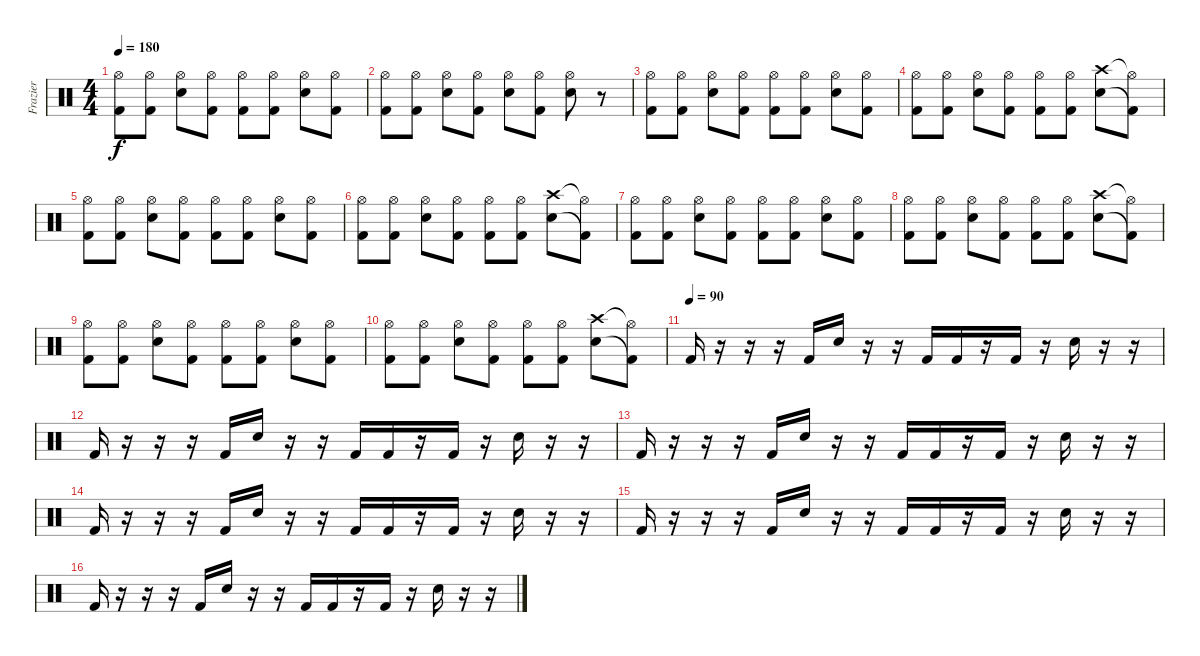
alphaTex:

\track ("Frazier" "Frazier") {instrument percussion}
\staff {score}
\articulation defaults
\ts (4 4)
\tempo 180
\clef neutral
\ks c
("Hi-Hat (open)" "Kick (hit) 2").8{dy f} ("Hi-Hat (open)" "Kick (hit) 2").8 ("Hi-Hat (open)" "Electric Snare (hit)").8 ("Hi-Hat (open)" "Kick (hit) 2").8 ("Hi-Hat (open)" "Kick (hit) 2").8 ("Hi-Hat (open)" "Kick (hit) 2").8 ("Hi-Hat (open)" "Electric Snare (hit)").8 ("Hi-Hat (open)" "Kick (hit) 2").8 |
("Hi-Hat (open)" "Kick (hit) 2").8 ("Hi-Hat (open)" "Kick (hit) 2").8 ("Hi-Hat (open)" "Electric Snare (hit)").8 ("Hi-Hat (open)" "Kick (hit) 2").8 ("Hi-Hat (open)" "Electric Snare (hit)").8 ("Hi-Hat (open)" "Kick (hit) 2").8 ("Hi-Hat (open)" "Electric Snare (hit)").8 r.8 |
("Hi-Hat (open)" "Kick (hit) 2").8 ("Hi-Hat (open)" "Kick (hit) 2").8 ("Hi-Hat (open)" "Electric Snare (hit)").8 ("Hi-Hat (open)" "Kick (hit) 2").8 ("Hi-Hat (open)" "Kick (hit) 2").8 ("Hi-Hat (open)" "Kick (hit) 2").8 ("Hi-Hat (open)" "Electric Snare (hit)").8 ("Hi-Hat (open)" "Kick (hit) 2").8 |
("Hi-Hat (open)" "Kick (hit) 2").8 ("Hi-Hat (open)" "Kick (hit) 2").8 ("Hi-Hat (open)" "Electric Snare (hit)").8 ("Hi-Hat (open)" "Kick (hit) 2").8 ("Hi-Hat (open)" "Kick (hit) 2").8 ("Hi-Hat (open)" "Kick (hit) 2").8 ("Crash high (hit)" "Electric Snare (hit)").8 ("Hi-Hat (open)"{t} "Kick (hit) 2"{t}).8 |
("Hi-Hat (open)" "Kick (hit) 2").8 ("Hi-Hat (open)" "Kick (hit) 2").8 ("Hi-Hat (open)" "Electric Snare (hit)").8 ("Hi-Hat (open)" "Kick (hit) 2").8 ("Hi-Hat (open)" "Kick (hit) 2").8 ("Hi-Hat (open)" "Kick (hit) 2").8 ("Hi-Hat (open)" "Electric Snare (hit)").8 ("Hi-Hat (open)" "Kick (hit) 2").8 |
("Hi-Hat (open)" "Kick (hit) 2").8 ("Hi-Hat (open)" "Kick (hit) 2").8 ("Hi-Hat (open)" "Electric Snare (hit)").8 ("Hi-Hat (open)" "Kick (hit) 2").8 ("Hi-Hat (open)" "Kick (hit) 2").8 ("Hi-Hat (open)" "Kick (hit) 2").8 ("Crash high (hit)" "Electric Snare (hit)").8 ("Hi-Hat (open)"{t} "Kick (hit) 2"{t}).8 |
("Hi-Hat (open)" "Kick (hit) 2").8 ("Hi-Hat (open)" "Kick (hit) 2").8 ("Hi-Hat (open)" "Electric Snare (hit)").8 ("Hi-Hat (open)" "Kick (hit) 2").8 ("Hi-Hat (open)" "Kick (hit) 2").8 ("Hi-Hat (open)" "Kick (hit) 2").8 ("Hi-Hat (open)" "Electric Snare (hit)").8 ("Hi-Hat (open)" "Kick (hit) 2").8 |
("Hi-Hat (open)" "Kick (hit) 2").8 ("Hi-Hat (open)" "Kick (hit) 2").8 ("Hi-Hat (open)" "Electric Snare (hit)").8 ("Hi-Hat (open)" "Kick (hit) 2").8 ("Hi-Hat (open)" "Kick (hit) 2").8 ("Hi-Hat (open)" "Kick (hit) 2").8 ("Crash high (hit)" "Electric Snare (hit)").8 ("Hi-Hat (open)"{t} "Kick (hit) 2"{t}).8 |
("Hi-Hat (open)" "Kick (hit) 2").8 ("Hi-Hat (open)" "Kick (hit) 2").8 ("Hi-Hat (open)" "Electric Snare (hit)").8 ("Hi-Hat (open)" "Kick (hit) 2").8 ("Hi-Hat (open)" "Kick (hit) 2").8 ("Hi-Hat (open)" "Kick (hit) 2").8 ("Hi-Hat (open)" "Electric Snare (hit)").8 ("Hi-Hat (open)" "Kick (hit) 2").8 |
("Hi-Hat (open)" "Kick (hit) 2").8 ("Hi-Hat (open)" "Kick (hit) 2").8 ("Hi-Hat (open)" "Electric Snare (hit)").8 ("Hi-Hat (open)" "Kick (hit) 2").8 ("Hi-Hat (open)" "Kick (hit) 2").8 ("Hi-Hat (open)" "Kick (hit) 2").8 ("Crash high (hit)" "Electric Snare (hit)").8 ("Hi-Hat (open)"{t} "Kick (hit) 2"{t}).8 |
\tempo (90)
"Kick (hit) 2".16 r.16 r.16 r.16 "Kick (hit) 2".16 "Electric Snare (hit)".16 r.16 r.16 "Kick (hit) 2".16 "Kick (hit) 2".16 r.16 "Kick (hit) 2".16 r.16 "Electric Snare (hit)".16 r.16 r.16 |
"Kick (hit) 2".16 r.16 r.16 r.16 "Kick (hit) 2".16 "Electric Snare (hit)".16 r.16 r.16 "Kick (hit) 2".16 "Kick (hit) 2".16 r.16 "Kick (hit) 2".16 r.16 "Electric Snare (hit)".16 r.16 r.16 |
"Kick (hit) 2".16 r.16 r.16 r.16 "Kick (hit) 2".16 "Electric Snare (hit)".16 r.16 r.16 "Kick (hit) 2".16 "Kick (hit) 2".16 r.16 "Kick (hit) 2".16 r.16 "Electric Snare (hit)".16 r.16 r.16 |
"Kick (hit) 2".16 r.16 r.16 r.16 "Kick (hit) 2".16 "Electric Snare (hit)".16 r.16 r.16 "Kick (hit) 2".16 "Kick (hit) 2".16 r.16 "Kick (hit) 2".16 r.16 "Electric Snare (hit)".16 r.16 r.16 |
"Kick (hit) 2".16 r.16 r.16 r.16 "Kick (hit) 2".16 "Electric Snare (hit)".16 r.16 r.16 "Kick (hit) 2".16 "Kick (hit) 2".16 r.16 "Kick (hit) 2".16 r.16 "Electric Snare (hit)".16 r.16 r.16 |
"Kick (hit) 2".16 r.16 r.16 r.16 "Kick (hit) 2".16 "Electric Snare (hit)".16 r.16 r.16 "Kick (hit) 2".16 "Kick (hit) 2".16 r.16 "Kick (hit) 2".16 r.16 "Electric Snare (hit)".16 r.16 r.16
